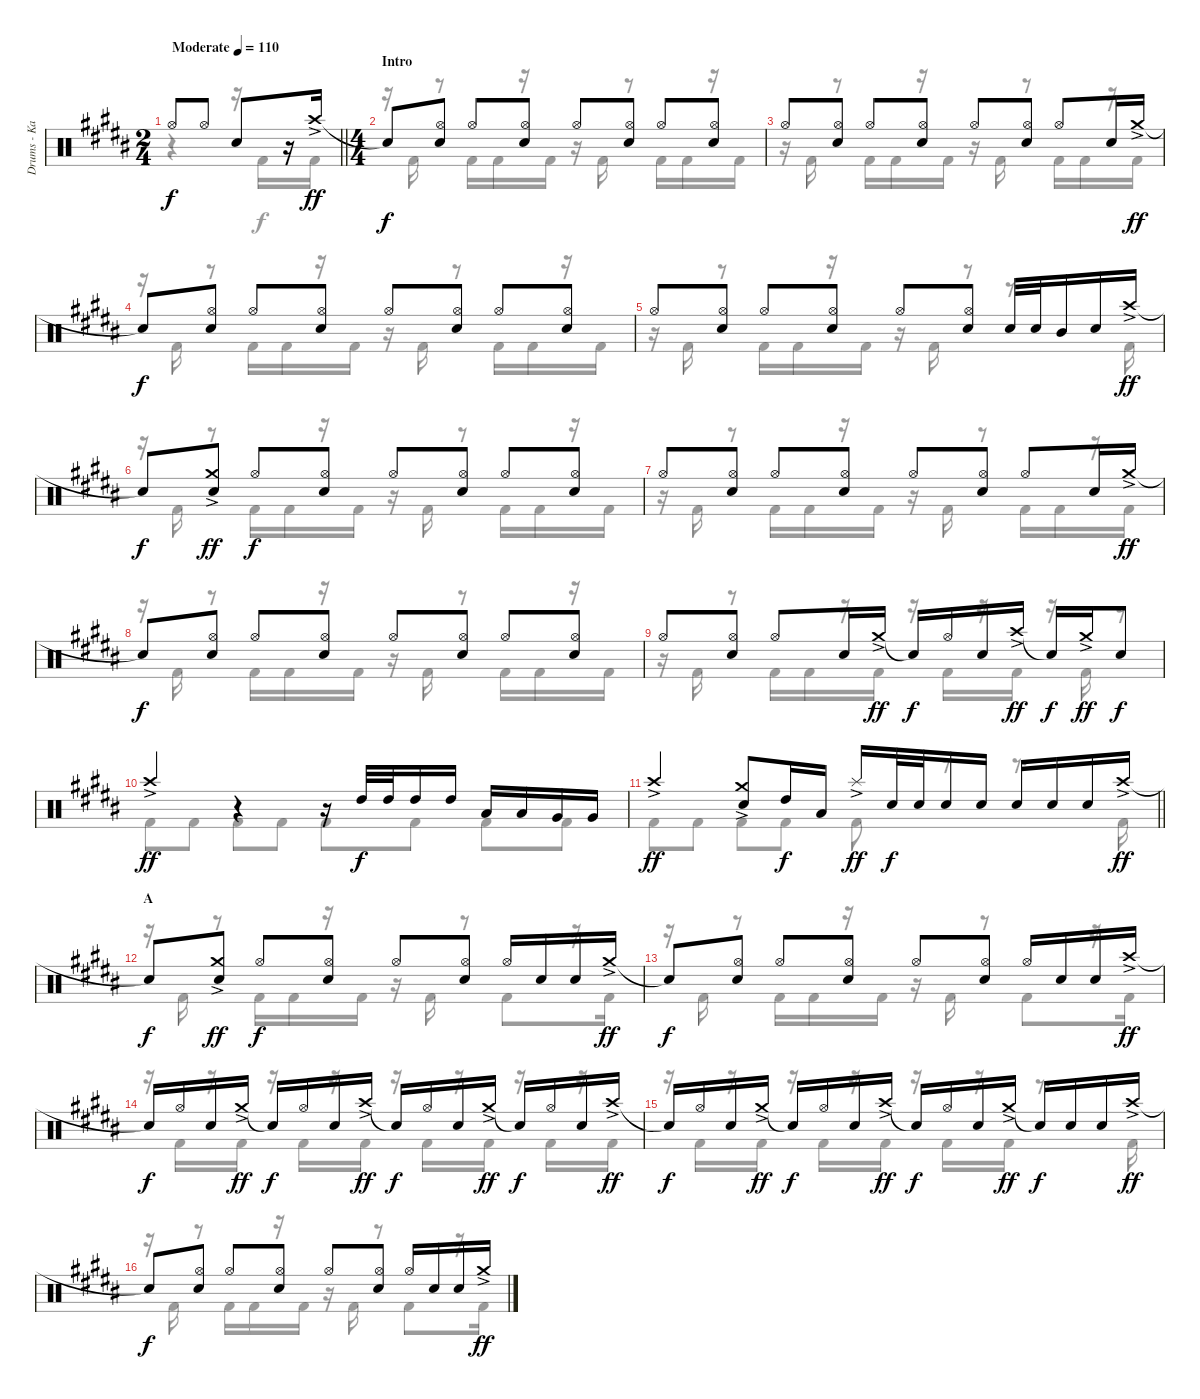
\track ("Drums - Kai" "Drums - Ka") {instrument percussion}
\staff {score}
\articulation defaults
\voice
\ts (2 4)
\tempo (110 "Moderate")
\clef neutral
\barLineRight lightlight
\ks b "Hi-Hat (open)".8{dy f} "Hi-Hat (open)".8 "Snare (hit) 2".8
r.16 "Crash high (hit)"{ac}.16{dy ff} |
\ts (4 4)
\section ("" "Intro")
"Snare (hit)"{t}.8{dy f} ("Hi-Hat (open)" "Snare (hit) 2").8 "Hi-Hat (open)".8 ("Hi-Hat (open)" "Snare (hit) 2").8 "Hi-Hat (open)".8 ("Hi-Hat (open)" "Snare (hit) 2").8 "Hi-Hat (open)".8 ("Hi-Hat (open)" "Snare (hit) 2").8 |
"Hi-Hat (open)".8 ("Hi-Hat (open)" "Snare (hit) 2").8 "Hi-Hat (open)".8 ("Hi-Hat (open)" "Snare (hit) 2").8 "Hi-Hat (open)".8 ("Hi-Hat (open)" "Snare (hit) 2").8 "Hi-Hat (open)".8 "Snare (hit) 2".16 "Crash medium (hit)"{ac}.16{dy ff} |
"Snare (hit)"{t}.8{dy f} ("Hi-Hat (open)" "Snare (hit) 2").8 "Hi-Hat (open)".8 ("Hi-Hat (open)" "Snare (hit) 2").8 "Hi-Hat (open)".8 ("Hi-Hat (open)" "Snare (hit) 2").8 "Hi-Hat (open)".8 ("Hi-Hat (open)" "Snare (hit) 2").8 |
"Hi-Hat (open)".8 ("Hi-Hat (open)" "Snare (hit) 2").8 "Hi-Hat (open)".8 ("Hi-Hat (open)" "Snare (hit) 2").8 "Hi-Hat (open)".8 ("Hi-Hat (open)" "Snare (hit) 2").8 "Snare (hit) 2".32 "Snare (hit) 2".32 "Mid Tom (hit)".16 "Snare (hit) 2".16 "Crash high (hit)"{ac}.16{dy ff} |
"Snare (hit)"{t}.8{dy f} ("Crash medium (hit)"{ac} "Snare (hit) 2").8{dy ff} "Hi-Hat (open)".8{dy f} ("Hi-Hat (open)" "Snare (hit) 2").8 "Hi-Hat (open)".8 ("Hi-Hat (open)" "Snare (hit) 2").8 "Hi-Hat (open)".8 ("Hi-Hat (open)" "Snare (hit) 2").8 |
"Hi-Hat (open)".8 ("Hi-Hat (open)" "Snare (hit) 2").8 "Hi-Hat (open)".8 ("Hi-Hat (open)" "Snare (hit) 2").8 "Hi-Hat (open)".8 ("Hi-Hat (open)" "Snare (hit) 2").8 "Hi-Hat (open)".8 "Snare (hit) 2".16 "Crash medium (hit)"{ac}.16{dy ff} |
"Snare (hit)"{t}.8{dy f} ("Hi-Hat (open)" "Snare (hit) 2").8 "Hi-Hat (open)".8 ("Hi-Hat (open)" "Snare (hit) 2").8 "Hi-Hat (open)".8 ("Hi-Hat (open)" "Snare (hit) 2").8 "Hi-Hat (open)".8 ("Hi-Hat (open)" "Snare (hit) 2").8 |
"Hi-Hat (open)".8 ("Hi-Hat (open)" "Snare (hit) 2").8 "Hi-Hat (open)".8 "Snare (hit) 2".16 "Crash medium (hit)"{ac}.16{dy ff} "Snare (hit)"{t}.16{dy f} "Hi-Hat (open)".16 "Snare (hit) 2".16 "Crash high (hit)"{ac}.16{dy ff} "Snare (hit)"{t}.16{dy f} "Crash medium (hit)"{ac}.16{dy ff} "Snare (hit) 2".8{dy f} |
"Crash high (hit)"{ac}.4{dy ff} r.4 r.16 "High Tom (hit)".32{dy f} "High Tom (hit)".32 "High Tom (hit)".16 "High Tom (hit)".16 "Low Tom (hit)".16 "Low Tom (hit)".16 "Very Low Tom (hit)".16 "Very Low Tom (hit)".16 |
\barLineRight lightlight "Crash high (hit)"{ac}.4{dy ff}
("Crash medium (hit)"{ac} "Snare (hit) 2").8 "High Tom (hit)".16{dy f} "Low Tom (hit)".16 "Splash (hit)"{ac}.16{dy ff} "Snare (hit) 2".32{dy f} "Snare (hit) 2".32 "Snare (hit) 2".16 "Snare (hit) 2".16 "Snare (hit) 2".16 "Snare (hit) 2".16 "Snare (hit) 2".16 "Crash high (hit)"{ac}.16{dy ff} |
\section ("" "A")
"Snare (hit)"{t}.8{dy f} ("Crash medium (hit)"{ac} "Snare (hit) 2").8{dy ff} "Hi-Hat (open)".8{dy f} ("Hi-Hat (open)" "Snare (hit) 2").8 "Hi-Hat (open)".8 ("Hi-Hat (open)" "Snare (hit) 2").8 "Hi-Hat (open)".16 "Snare (hit) 2".16 "Snare (hit) 2".16 "Crash medium (hit)"{ac}.16{dy ff} |
"Snare (hit)"{t}.8{dy f} ("Hi-Hat (open)" "Snare (hit) 2").8 "Hi-Hat (open)".8 ("Hi-Hat (open)" "Snare (hit) 2").8 "Hi-Hat (open)".8 ("Hi-Hat (open)" "Snare (hit) 2").8 "Hi-Hat (open)".16 "Snare (hit) 2".16 "Snare (hit) 2".16 "Crash high (hit)"{ac}.16{dy ff} |
"Snare (hit)"{t}.16{dy f} "Hi-Hat (open)".16 "Snare (hit) 2".16 "Crash medium (hit)"{ac}.16{dy ff} "Snare (hit)"{t}.16{dy f} "Hi-Hat (open)".16 "Snare (hit) 2".16 "Crash high (hit)"{ac}.16{dy ff} "Snare (hit)"{t}.16{dy f} "Hi-Hat (open)".16 "Snare (hit) 2".16 "Crash medium (hit)"{ac}.16{dy ff} "Snare (hit)"{t}.16{dy f} "Hi-Hat (open)".16 "Snare (hit) 2".16 "Crash high (hit)"{ac}.16{dy ff} |
"Snare (hit)"{t}.16{dy f} "Hi-Hat (open)".16 "Snare (hit) 2".16 "Crash medium (hit)"{ac}.16{dy ff} "Snare (hit)"{t}.16{dy f} "Hi-Hat (open)".16 "Snare (hit) 2".16 "Crash high (hit)"{ac}.16{dy ff} "Snare (hit)"{t}.16{dy f} "Hi-Hat (open)".16 "Snare (hit) 2".16 "Crash medium (hit)"{ac}.16{dy ff} "Snare (hit)"{t}.16{dy f} "Snare (hit) 2".16 "Snare (hit) 2".16 "Crash high (hit)"{ac}.16{dy ff} |
"Snare (hit)"{t}.8{dy f} ("Hi-Hat (open)" "Snare (hit) 2").8 "Hi-Hat (open)".8 ("Hi-Hat (open)" "Snare (hit) 2").8 "Hi-Hat (open)".8 ("Hi-Hat (open)" "Snare (hit) 2").8 "Hi-Hat (open)".16 "Snare (hit) 2".16 "Snare (hit) 2".16 "Crash medium (hit)"{ac}.16{dy ff}
\voice
\clef neutral
\ottava regular
\simile none
\barLineRight lightlight
\ks b
r.4{dy f} r.16 "Kick (hit) 2".16 r.16 "Kick (hit) 2".16 |
r.16 "Kick (hit) 2".16 r.8 "Kick (hit) 2".16 "Kick (hit) 2".16 r.16 "Kick (hit) 2".16 r.16 "Kick (hit) 2".16 r.8 "Kick (hit) 2".16 "Kick (hit) 2".16 r.16 "Kick (hit) 2".16 |
r.16 "Kick (hit) 2".16 r.8 "Kick (hit) 2".16 "Kick (hit) 2".16 r.16 "Kick (hit) 2".16 r.16 "Kick (hit) 2".16 r.8 "Kick (hit) 2".16 "Kick (hit) 2".16 r.16 "Kick (hit) 2".16 |
r.16 "Kick (hit) 2".16 r.8 "Kick (hit) 2".16 "Kick (hit) 2".16 r.16 "Kick (hit) 2".16 r.16 "Kick (hit) 2".16 r.8 "Kick (hit) 2".16 "Kick (hit) 2".16 r.16 "Kick (hit) 2".16 |
r.16 "Kick (hit) 2".16 r.8 "Kick (hit) 2".16 "Kick (hit) 2".16 r.16 "Kick (hit) 2".16 r.16 "Kick (hit) 2".16 r.8 r.8{d} "Kick (hit) 2".16 |
r.16 "Kick (hit) 2".16 r.8 "Kick (hit) 2".16 "Kick (hit) 2".16 r.16 "Kick (hit) 2".16 r.16 "Kick (hit) 2".16 r.8 "Kick (hit) 2".16 "Kick (hit) 2".16 r.16 "Kick (hit) 2".16 |
r.16 "Kick (hit) 2".16 r.8 "Kick (hit) 2".16 "Kick (hit) 2".16 r.16 "Kick (hit) 2".16 r.16 "Kick (hit) 2".16 r.8 "Kick (hit) 2".16 "Kick (hit) 2".16 r.16 "Kick (hit) 2".16 |
r.16 "Kick (hit) 2".16 r.8 "Kick (hit) 2".16 "Kick (hit) 2".16 r.16 "Kick (hit) 2".16 r.16 "Kick (hit) 2".16 r.8 "Kick (hit) 2".16 "Kick (hit) 2".16 r.16 "Kick (hit) 2".16 |
r.16 "Kick (hit) 2".16 r.8 "Kick (hit) 2".16 "Kick (hit) 2".16 r.16 "Kick (hit) 2".16 r.16 "Kick (hit) 2".16 r.16 "Kick (hit) 2".16 r.16 "Kick (hit) 2".16 r.8 |
"Kick (hit) 2".8 "Kick (hit) 2".8 "Kick (hit) 2".8 "Kick (hit) 2".8 "Kick (hit) 2".8 "Kick (hit) 2".8 "Kick (hit) 2".8 "Kick (hit) 2".8 |
\barLineRight lightlight "Kick (hit) 2".8 "Kick (hit) 2".8 "Kick (hit) 2".8 "Kick (hit) 2".8 "Kick (hit) 2".8
r.8 r.8{d} "Kick (hit) 2".16 |
r.16 "Kick (hit) 2".16 r.8 "Kick (hit) 2".16 "Kick (hit) 2".16 r.16 "Kick (hit) 2".16 r.16 "Kick (hit) 2".16 r.8 "Kick (hit) 2".8 r.16 "Kick (hit) 2".16 |
r.16 "Kick (hit) 2".16 r.8 "Kick (hit) 2".16 "Kick (hit) 2".16 r.16 "Kick (hit) 2".16 r.16 "Kick (hit) 2".16 r.8 "Kick (hit) 2".8 r.16 "Kick (hit) 2".16 |
r.16 "Kick (hit) 2".16 r.16 "Kick (hit) 2".16 r.16 "Kick (hit) 2".16 r.16 "Kick (hit) 2".16 r.16 "Kick (hit) 2".16 r.16 "Kick (hit) 2".16 r.16 "Kick (hit) 2".16 r.16 "Kick (hit) 2".16 |
r.16 "Kick (hit) 2".16 r.16 "Kick (hit) 2".16 r.16 "Kick (hit) 2".16 r.16 "Kick (hit) 2".16 r.16 "Kick (hit) 2".16 r.16 "Kick (hit) 2".16 r.8{d} "Kick (hit) 2".16 |
r.16 "Kick (hit) 2".16 r.8 "Kick (hit) 2".16 "Kick (hit) 2".16 r.16 "Kick (hit) 2".16 r.16 "Kick (hit) 2".16 r.8 "Kick (hit) 2".8 r.16 "Kick (hit) 2".16
